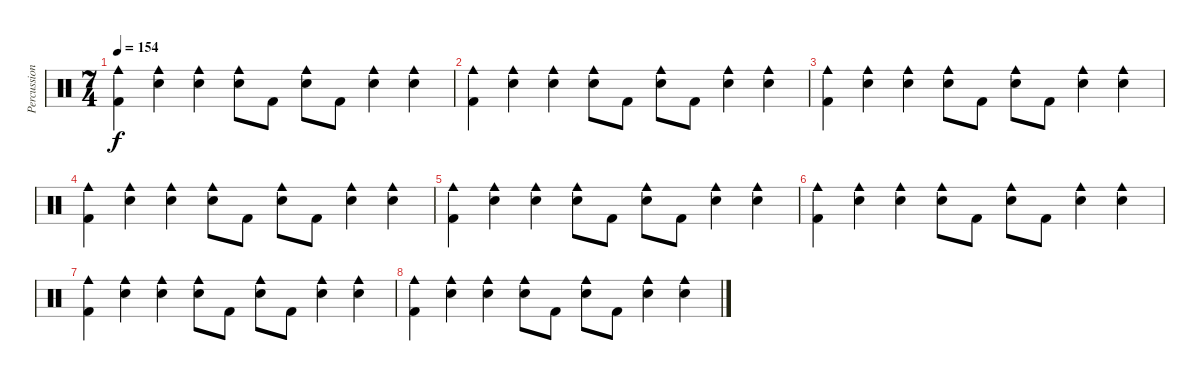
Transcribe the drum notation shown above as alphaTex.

\track ("Percussion" "Percussion") {instrument percussion}
\staff {score}
\articulation defaults
\ts (7 4)
\tempo 154
\clef neutral
\ks c
("Cowbell medium (hit)" "Kick (hit) 2").4{dy f} ("Cowbell medium (hit)" "Snare (hit) 2").4 ("Cowbell medium (hit)" "Snare (hit) 2").4 ("Cowbell medium (hit)" "Snare (hit) 2").8 "Kick (hit) 2".8 ("Cowbell medium (hit)" "Snare (hit) 2").8 "Kick (hit) 2".8 ("Cowbell medium (hit)" "Snare (hit) 2").4 ("Cowbell medium (hit)" "Snare (hit) 2").4 |
("Cowbell medium (hit)" "Kick (hit) 2").4 ("Cowbell medium (hit)" "Snare (hit) 2").4 ("Cowbell medium (hit)" "Snare (hit) 2").4 ("Cowbell medium (hit)" "Snare (hit) 2").8 "Kick (hit) 2".8 ("Cowbell medium (hit)" "Snare (hit) 2").8 "Kick (hit) 2".8 ("Cowbell medium (hit)" "Snare (hit) 2").4 ("Cowbell medium (hit)" "Snare (hit) 2").4 |
("Cowbell medium (hit)" "Kick (hit) 2").4 ("Cowbell medium (hit)" "Snare (hit) 2").4 ("Cowbell medium (hit)" "Snare (hit) 2").4 ("Cowbell medium (hit)" "Snare (hit) 2").8 "Kick (hit) 2".8 ("Cowbell medium (hit)" "Snare (hit) 2").8 "Kick (hit) 2".8 ("Cowbell medium (hit)" "Snare (hit) 2").4 ("Cowbell medium (hit)" "Snare (hit) 2").4 |
("Cowbell medium (hit)" "Kick (hit) 2").4 ("Cowbell medium (hit)" "Snare (hit) 2").4 ("Cowbell medium (hit)" "Snare (hit) 2").4 ("Cowbell medium (hit)" "Snare (hit) 2").8 "Kick (hit) 2".8 ("Cowbell medium (hit)" "Snare (hit) 2").8 "Kick (hit) 2".8 ("Cowbell medium (hit)" "Snare (hit) 2").4 ("Cowbell medium (hit)" "Snare (hit) 2").4 |
("Cowbell medium (hit)" "Kick (hit) 2").4 ("Cowbell medium (hit)" "Snare (hit) 2").4 ("Cowbell medium (hit)" "Snare (hit) 2").4 ("Cowbell medium (hit)" "Snare (hit) 2").8 "Kick (hit) 2".8 ("Cowbell medium (hit)" "Snare (hit) 2").8 "Kick (hit) 2".8 ("Cowbell medium (hit)" "Snare (hit) 2").4 ("Cowbell medium (hit)" "Snare (hit) 2").4 |
("Cowbell medium (hit)" "Kick (hit) 2").4 ("Cowbell medium (hit)" "Snare (hit) 2").4 ("Cowbell medium (hit)" "Snare (hit) 2").4 ("Cowbell medium (hit)" "Snare (hit) 2").8 "Kick (hit) 2".8 ("Cowbell medium (hit)" "Snare (hit) 2").8 "Kick (hit) 2".8 ("Cowbell medium (hit)" "Snare (hit) 2").4 ("Cowbell medium (hit)" "Snare (hit) 2").4 |
("Cowbell medium (hit)" "Kick (hit) 2").4 ("Cowbell medium (hit)" "Snare (hit) 2").4 ("Cowbell medium (hit)" "Snare (hit) 2").4 ("Cowbell medium (hit)" "Snare (hit) 2").8 "Kick (hit) 2".8 ("Cowbell medium (hit)" "Snare (hit) 2").8 "Kick (hit) 2".8 ("Cowbell medium (hit)" "Snare (hit) 2").4 ("Cowbell medium (hit)" "Snare (hit) 2").4 |
("Cowbell medium (hit)" "Kick (hit) 2").4 ("Cowbell medium (hit)" "Snare (hit) 2").4 ("Cowbell medium (hit)" "Snare (hit) 2").4 ("Cowbell medium (hit)" "Snare (hit) 2").8 "Kick (hit) 2".8 ("Cowbell medium (hit)" "Snare (hit) 2").8 "Kick (hit) 2".8 ("Cowbell medium (hit)" "Snare (hit) 2").4 ("Cowbell medium (hit)" "Snare (hit) 2").4
